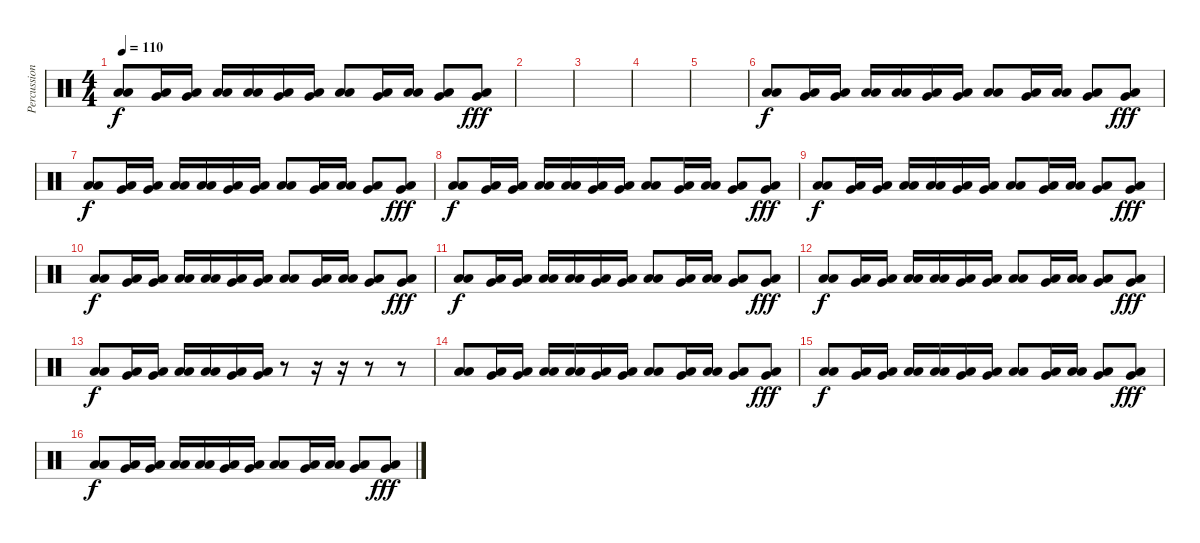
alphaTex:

\track ("Percussion" "Percussion") {instrument percussion}
\staff {score}
\articulation defaults
\ts (4 4)
\tempo 110
\clef neutral
\ks c
("Low Floor Tom (hit)" "Low Floor Tom (hit)").8{dy f} ("Low Tom (hit)" "Very Low Tom (hit)").16 ("Low Tom (hit)" "Very Low Tom (hit)").16 ("Low Floor Tom (hit)" "Low Floor Tom (hit)").16 ("Low Floor Tom (hit)" "Low Floor Tom (hit)").16 ("Low Tom (hit)" "Very Low Tom (hit)").16 ("Low Tom (hit)" "Very Low Tom (hit)").16 ("Low Floor Tom (hit)" "Low Floor Tom (hit)").8 ("Low Tom (hit)" "Very Low Tom (hit)").16 ("Low Tom (hit)" "Low Tom (hit)").16 ("Low Floor Tom (hit)" "Very Low Tom (hit)").8 ("Low Floor Tom (hit)" "Very Low Tom (hit)").8{dy fff} |
|
|
|
|
("Low Floor Tom (hit)" "Low Floor Tom (hit)").8{dy f} ("Low Tom (hit)" "Very Low Tom (hit)").16 ("Low Tom (hit)" "Very Low Tom (hit)").16 ("Low Floor Tom (hit)" "Low Floor Tom (hit)").16 ("Low Floor Tom (hit)" "Low Floor Tom (hit)").16 ("Low Tom (hit)" "Very Low Tom (hit)").16 ("Low Tom (hit)" "Very Low Tom (hit)").16 ("Low Floor Tom (hit)" "Low Floor Tom (hit)").8 ("Low Tom (hit)" "Very Low Tom (hit)").16 ("Low Tom (hit)" "Low Tom (hit)").16 ("Low Floor Tom (hit)" "Very Low Tom (hit)").8 ("Low Floor Tom (hit)" "Very Low Tom (hit)").8{dy fff} |
("Low Floor Tom (hit)" "Low Floor Tom (hit)").8{dy f} ("Low Tom (hit)" "Very Low Tom (hit)").16 ("Low Tom (hit)" "Very Low Tom (hit)").16 ("Low Floor Tom (hit)" "Low Floor Tom (hit)").16 ("Low Floor Tom (hit)" "Low Floor Tom (hit)").16 ("Low Tom (hit)" "Very Low Tom (hit)").16 ("Low Tom (hit)" "Very Low Tom (hit)").16 ("Low Floor Tom (hit)" "Low Floor Tom (hit)").8 ("Low Tom (hit)" "Very Low Tom (hit)").16 ("Low Tom (hit)" "Low Tom (hit)").16 ("Low Floor Tom (hit)" "Very Low Tom (hit)").8 ("Low Floor Tom (hit)" "Very Low Tom (hit)").8{dy fff} |
("Low Floor Tom (hit)" "Low Floor Tom (hit)").8{dy f} ("Low Tom (hit)" "Very Low Tom (hit)").16 ("Low Tom (hit)" "Very Low Tom (hit)").16 ("Low Floor Tom (hit)" "Low Floor Tom (hit)").16 ("Low Floor Tom (hit)" "Low Floor Tom (hit)").16 ("Low Tom (hit)" "Very Low Tom (hit)").16 ("Low Tom (hit)" "Very Low Tom (hit)").16 ("Low Floor Tom (hit)" "Low Floor Tom (hit)").8 ("Low Tom (hit)" "Very Low Tom (hit)").16 ("Low Tom (hit)" "Low Tom (hit)").16 ("Low Floor Tom (hit)" "Very Low Tom (hit)").8 ("Low Floor Tom (hit)" "Very Low Tom (hit)").8{dy fff} |
("Low Floor Tom (hit)" "Low Floor Tom (hit)").8{dy f} ("Low Tom (hit)" "Very Low Tom (hit)").16 ("Low Tom (hit)" "Very Low Tom (hit)").16 ("Low Floor Tom (hit)" "Low Floor Tom (hit)").16 ("Low Floor Tom (hit)" "Low Floor Tom (hit)").16 ("Low Tom (hit)" "Very Low Tom (hit)").16 ("Low Tom (hit)" "Very Low Tom (hit)").16 ("Low Floor Tom (hit)" "Low Floor Tom (hit)").8 ("Low Tom (hit)" "Very Low Tom (hit)").16 ("Low Tom (hit)" "Low Tom (hit)").16 ("Low Floor Tom (hit)" "Very Low Tom (hit)").8 ("Low Floor Tom (hit)" "Very Low Tom (hit)").8{dy fff} |
("Low Floor Tom (hit)" "Low Floor Tom (hit)").8{dy f} ("Low Tom (hit)" "Very Low Tom (hit)").16 ("Low Tom (hit)" "Very Low Tom (hit)").16 ("Low Floor Tom (hit)" "Low Floor Tom (hit)").16 ("Low Floor Tom (hit)" "Low Floor Tom (hit)").16 ("Low Tom (hit)" "Very Low Tom (hit)").16 ("Low Tom (hit)" "Very Low Tom (hit)").16 ("Low Floor Tom (hit)" "Low Floor Tom (hit)").8 ("Low Tom (hit)" "Very Low Tom (hit)").16 ("Low Tom (hit)" "Low Tom (hit)").16 ("Low Floor Tom (hit)" "Very Low Tom (hit)").8 ("Low Floor Tom (hit)" "Very Low Tom (hit)").8{dy fff} |
("Low Floor Tom (hit)" "Low Floor Tom (hit)").8{dy f} ("Low Tom (hit)" "Very Low Tom (hit)").16 ("Low Tom (hit)" "Very Low Tom (hit)").16 ("Low Floor Tom (hit)" "Low Floor Tom (hit)").16 ("Low Floor Tom (hit)" "Low Floor Tom (hit)").16 ("Low Tom (hit)" "Very Low Tom (hit)").16 ("Low Tom (hit)" "Very Low Tom (hit)").16 ("Low Floor Tom (hit)" "Low Floor Tom (hit)").8 ("Low Tom (hit)" "Very Low Tom (hit)").16 ("Low Tom (hit)" "Low Tom (hit)").16 ("Low Floor Tom (hit)" "Very Low Tom (hit)").8 ("Low Floor Tom (hit)" "Very Low Tom (hit)").8{dy fff} |
("Low Floor Tom (hit)" "Low Floor Tom (hit)").8{dy f} ("Low Tom (hit)" "Very Low Tom (hit)").16 ("Low Tom (hit)" "Very Low Tom (hit)").16 ("Low Floor Tom (hit)" "Low Floor Tom (hit)").16 ("Low Floor Tom (hit)" "Low Floor Tom (hit)").16 ("Low Tom (hit)" "Very Low Tom (hit)").16 ("Low Tom (hit)" "Very Low Tom (hit)").16 ("Low Floor Tom (hit)" "Low Floor Tom (hit)").8 ("Low Tom (hit)" "Very Low Tom (hit)").16 ("Low Tom (hit)" "Low Tom (hit)").16 ("Low Floor Tom (hit)" "Very Low Tom (hit)").8 ("Low Floor Tom (hit)" "Very Low Tom (hit)").8{dy fff} |
("Low Floor Tom (hit)" "Low Floor Tom (hit)").8{dy f} ("Low Tom (hit)" "Very Low Tom (hit)").16 ("Low Tom (hit)" "Very Low Tom (hit)").16 ("Low Floor Tom (hit)" "Low Floor Tom (hit)").16 ("Low Floor Tom (hit)" "Low Floor Tom (hit)").16 ("Low Tom (hit)" "Very Low Tom (hit)").16 ("Low Tom (hit)" "Very Low Tom (hit)").16 r.8 r.16 r.16 r.8 r.8 |
("Low Floor Tom (hit)" "Low Floor Tom (hit)").8 ("Low Tom (hit)" "Very Low Tom (hit)").16 ("Low Tom (hit)" "Very Low Tom (hit)").16 ("Low Floor Tom (hit)" "Low Floor Tom (hit)").16 ("Low Floor Tom (hit)" "Low Floor Tom (hit)").16 ("Low Tom (hit)" "Very Low Tom (hit)").16 ("Low Tom (hit)" "Very Low Tom (hit)").16 ("Low Floor Tom (hit)" "Low Floor Tom (hit)").8 ("Low Tom (hit)" "Very Low Tom (hit)").16 ("Low Tom (hit)" "Low Tom (hit)").16 ("Low Floor Tom (hit)" "Very Low Tom (hit)").8 ("Low Floor Tom (hit)" "Very Low Tom (hit)").8{dy fff} |
("Low Floor Tom (hit)" "Low Floor Tom (hit)").8{dy f} ("Low Tom (hit)" "Very Low Tom (hit)").16 ("Low Tom (hit)" "Very Low Tom (hit)").16 ("Low Floor Tom (hit)" "Low Floor Tom (hit)").16 ("Low Floor Tom (hit)" "Low Floor Tom (hit)").16 ("Low Tom (hit)" "Very Low Tom (hit)").16 ("Low Tom (hit)" "Very Low Tom (hit)").16 ("Low Floor Tom (hit)" "Low Floor Tom (hit)").8 ("Low Tom (hit)" "Very Low Tom (hit)").16 ("Low Tom (hit)" "Low Tom (hit)").16 ("Low Floor Tom (hit)" "Very Low Tom (hit)").8 ("Low Floor Tom (hit)" "Very Low Tom (hit)").8{dy fff} |
("Low Floor Tom (hit)" "Low Floor Tom (hit)").8{dy f} ("Low Tom (hit)" "Very Low Tom (hit)").16 ("Low Tom (hit)" "Very Low Tom (hit)").16 ("Low Floor Tom (hit)" "Low Floor Tom (hit)").16 ("Low Floor Tom (hit)" "Low Floor Tom (hit)").16 ("Low Tom (hit)" "Very Low Tom (hit)").16 ("Low Tom (hit)" "Very Low Tom (hit)").16 ("Low Floor Tom (hit)" "Low Floor Tom (hit)").8 ("Low Tom (hit)" "Very Low Tom (hit)").16 ("Low Tom (hit)" "Low Tom (hit)").16 ("Low Floor Tom (hit)" "Very Low Tom (hit)").8 ("Low Floor Tom (hit)" "Very Low Tom (hit)").8{dy fff}
